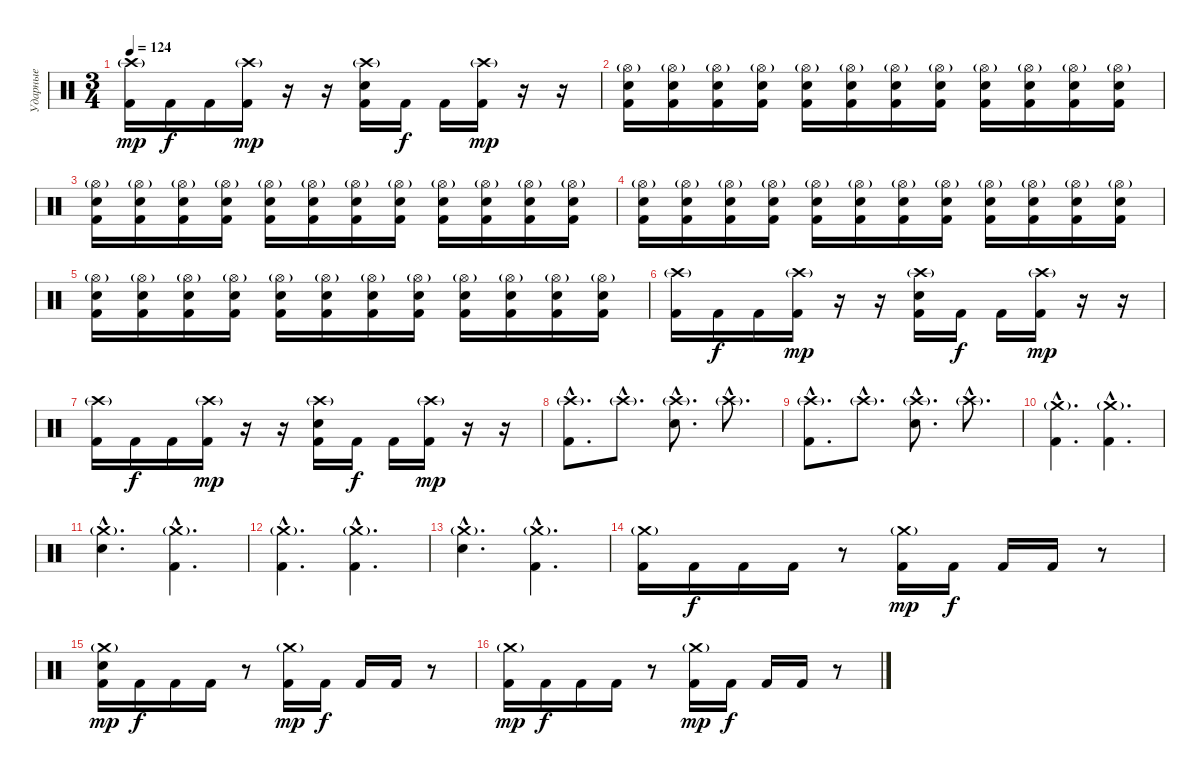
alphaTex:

\track ("Ударные" "Ударные") {instrument percussion}
\staff {score}
\articulation defaults
\ts (3 4)
\tempo 124
\clef neutral
\ks c
("Crash high (hit)"{g} "Kick (hit) 2").16{dy mp} "Kick (hit) 2".16{dy f} "Kick (hit) 2".16 ("Crash high (hit)"{g} "Kick (hit) 2").16{dy mp} r.16 r.16 ("Crash high (hit)"{g} "Electric Snare (hit)" "Kick (hit) 2").16 "Kick (hit) 2".16{dy f} "Kick (hit) 2".16 ("Crash high (hit)"{g} "Kick (hit) 2").16{dy mp} r.16 r.16 |
("Hi-Hat (open)"{g} "Electric Snare (hit)" "Kick (hit) 2").16 ("Hi-Hat (open)"{g} "Electric Snare (hit)" "Kick (hit) 2").16 ("Hi-Hat (open)"{g} "Electric Snare (hit)" "Kick (hit) 2").16 ("Hi-Hat (open)"{g} "Electric Snare (hit)" "Kick (hit) 2").16 ("Hi-Hat (open)"{g} "Electric Snare (hit)" "Kick (hit) 2").16 ("Hi-Hat (open)"{g} "Electric Snare (hit)" "Kick (hit) 2").16 ("Hi-Hat (open)"{g} "Electric Snare (hit)" "Kick (hit) 2").16 ("Hi-Hat (open)"{g} "Electric Snare (hit)" "Kick (hit) 2").16 ("Hi-Hat (open)"{g} "Electric Snare (hit)" "Kick (hit) 2").16 ("Hi-Hat (open)"{g} "Electric Snare (hit)" "Kick (hit) 2").16 ("Hi-Hat (open)"{g} "Electric Snare (hit)" "Kick (hit) 2").16 ("Hi-Hat (open)"{g} "Electric Snare (hit)" "Kick (hit) 2").16 |
("Hi-Hat (open)"{g} "Electric Snare (hit)" "Kick (hit) 2").16 ("Hi-Hat (open)"{g} "Electric Snare (hit)" "Kick (hit) 2").16 ("Hi-Hat (open)"{g} "Electric Snare (hit)" "Kick (hit) 2").16 ("Hi-Hat (open)"{g} "Electric Snare (hit)" "Kick (hit) 2").16 ("Hi-Hat (open)"{g} "Electric Snare (hit)" "Kick (hit) 2").16 ("Hi-Hat (open)"{g} "Electric Snare (hit)" "Kick (hit) 2").16 ("Hi-Hat (open)"{g} "Electric Snare (hit)" "Kick (hit) 2").16 ("Hi-Hat (open)"{g} "Electric Snare (hit)" "Kick (hit) 2").16 ("Hi-Hat (open)"{g} "Electric Snare (hit)" "Kick (hit) 2").16 ("Hi-Hat (open)"{g} "Electric Snare (hit)" "Kick (hit) 2").16 ("Hi-Hat (open)"{g} "Electric Snare (hit)" "Kick (hit) 2").16 ("Hi-Hat (open)"{g} "Electric Snare (hit)" "Kick (hit) 2").16 |
("Hi-Hat (open)"{g} "Electric Snare (hit)" "Kick (hit) 2").16 ("Hi-Hat (open)"{g} "Electric Snare (hit)" "Kick (hit) 2").16 ("Hi-Hat (open)"{g} "Electric Snare (hit)" "Kick (hit) 2").16 ("Hi-Hat (open)"{g} "Electric Snare (hit)" "Kick (hit) 2").16 ("Hi-Hat (open)"{g} "Electric Snare (hit)" "Kick (hit) 2").16 ("Hi-Hat (open)"{g} "Electric Snare (hit)" "Kick (hit) 2").16 ("Hi-Hat (open)"{g} "Electric Snare (hit)" "Kick (hit) 2").16 ("Hi-Hat (open)"{g} "Electric Snare (hit)" "Kick (hit) 2").16 ("Hi-Hat (open)"{g} "Electric Snare (hit)" "Kick (hit) 2").16 ("Hi-Hat (open)"{g} "Electric Snare (hit)" "Kick (hit) 2").16 ("Hi-Hat (open)"{g} "Electric Snare (hit)" "Kick (hit) 2").16 ("Hi-Hat (open)"{g} "Electric Snare (hit)" "Kick (hit) 2").16 |
("Hi-Hat (open)"{g} "Electric Snare (hit)" "Kick (hit) 2").16 ("Hi-Hat (open)"{g} "Electric Snare (hit)" "Kick (hit) 2").16 ("Hi-Hat (open)"{g} "Electric Snare (hit)" "Kick (hit) 2").16 ("Hi-Hat (open)"{g} "Electric Snare (hit)" "Kick (hit) 2").16 ("Hi-Hat (open)"{g} "Electric Snare (hit)" "Kick (hit) 2").16 ("Hi-Hat (open)"{g} "Electric Snare (hit)" "Kick (hit) 2").16 ("Hi-Hat (open)"{g} "Electric Snare (hit)" "Kick (hit) 2").16 ("Hi-Hat (open)"{g} "Electric Snare (hit)" "Kick (hit) 2").16 ("Hi-Hat (open)"{g} "Electric Snare (hit)" "Kick (hit) 2").16 ("Hi-Hat (open)"{g} "Electric Snare (hit)" "Kick (hit) 2").16 ("Hi-Hat (open)"{g} "Electric Snare (hit)" "Kick (hit) 2").16 ("Hi-Hat (open)"{g} "Electric Snare (hit)" "Kick (hit) 2").16 |
("Crash high (hit)"{g} "Kick (hit) 2").16 "Kick (hit) 2".16{dy f} "Kick (hit) 2".16 ("Crash high (hit)"{g} "Kick (hit) 2").16{dy mp} r.16 r.16 ("Crash high (hit)"{g} "Electric Snare (hit)" "Kick (hit) 2").16 "Kick (hit) 2".16{dy f} "Kick (hit) 2".16 ("Crash high (hit)"{g} "Kick (hit) 2").16{dy mp} r.16 r.16 |
("Crash high (hit)"{g} "Kick (hit) 2").16 "Kick (hit) 2".16{dy f} "Kick (hit) 2".16 ("Crash high (hit)"{g} "Kick (hit) 2").16{dy mp} r.16 r.16 ("Crash high (hit)"{g} "Electric Snare (hit)" "Kick (hit) 2").16 "Kick (hit) 2".16{dy f} "Kick (hit) 2".16 ("Crash high (hit)"{g} "Kick (hit) 2").16{dy mp} r.16 r.16 |
("Crash high (hit)"{g hac} "Kick (hit) 2"{hac}).8{d} "Crash high (hit)"{g hac}.8{d} ("Crash high (hit)"{g hac} "Electric Snare (hit)"{hac}).8{d} "Crash high (hit)"{g hac}.8{d} |
("Crash high (hit)"{g hac} "Kick (hit) 2"{hac}).8{d} "Crash high (hit)"{g hac}.8{d} ("Crash high (hit)"{g hac} "Electric Snare (hit)"{hac}).8{d} "Crash high (hit)"{g hac}.8{d} |
("Crash medium (hit)"{g hac} "Kick (hit) 2"{hac}).4{d} ("Crash medium (hit)"{g hac} "Kick (hit) 2"{hac}).4{d} |
("Crash medium (hit)"{g hac} "Electric Snare (hit)"{hac}).4{d} ("Crash medium (hit)"{g hac} "Kick (hit) 2"{hac}).4{d} |
("Crash medium (hit)"{g hac} "Kick (hit) 2"{hac}).4{d} ("Crash medium (hit)"{g hac} "Kick (hit) 2"{hac}).4{d} |
("Crash medium (hit)"{g hac} "Electric Snare (hit)"{hac}).4{d} ("Crash medium (hit)"{g hac} "Kick (hit) 2"{hac}).4{d} |
("Crash medium (hit)"{g} "Kick (hit) 2").16 "Kick (hit) 2".16{dy f} "Kick (hit) 2".16 "Kick (hit) 2".16 r.8 ("Crash medium (hit)"{g} "Kick (hit) 2").16{dy mp} "Kick (hit) 2".16{dy f} "Kick (hit) 2".16 "Kick (hit) 2".16 r.8 |
("Crash medium (hit)"{g} "Electric Snare (hit)" "Kick (hit) 2").16{dy mp} "Kick (hit) 2".16{dy f} "Kick (hit) 2".16 "Kick (hit) 2".16 r.8 ("Crash medium (hit)"{g} "Kick (hit) 2").16{dy mp} "Kick (hit) 2".16{dy f} "Kick (hit) 2".16 "Kick (hit) 2".16 r.8 |
("Crash medium (hit)"{g} "Kick (hit) 2").16{dy mp} "Kick (hit) 2".16{dy f} "Kick (hit) 2".16 "Kick (hit) 2".16 r.8 ("Crash medium (hit)"{g} "Kick (hit) 2").16{dy mp} "Kick (hit) 2".16{dy f} "Kick (hit) 2".16 "Kick (hit) 2".16 r.8
